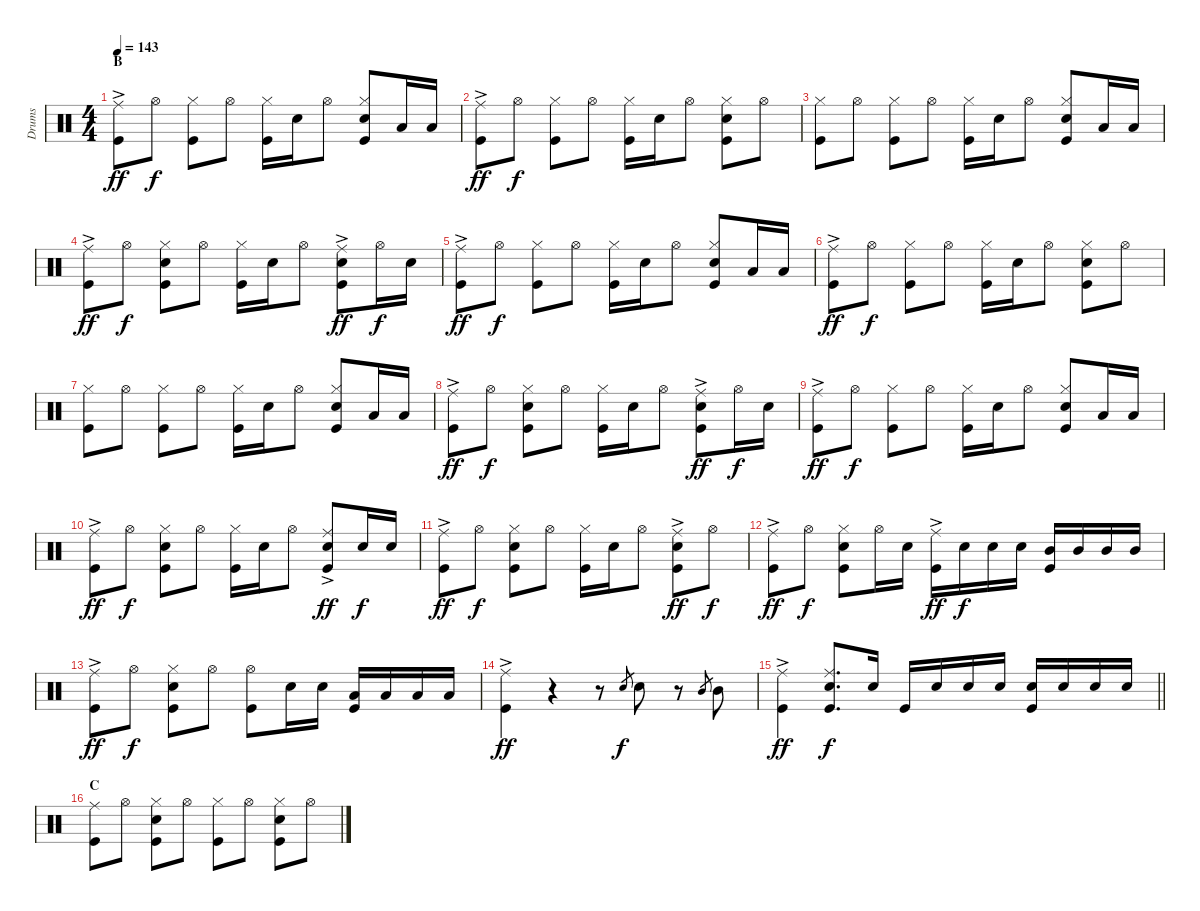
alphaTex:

\track ("Drums" "Drums") {instrument percussion}
\staff {score}
\articulation defaults
\ts (4 4)
\section ("" "B")
\tempo 143
\clef neutral
\ks c
("Kick (hit)" "Ride (middle)"{ac}).8{dy ff} "Hi-Hat (open)".8{dy f} ("Hi-Hat (closed)" "Kick (hit)").8 "Hi-Hat (open)".8 ("Hi-Hat (closed)" "Kick (hit)").16 "Snare (hit) 2".16 "Hi-Hat (open)".8 ("Hi-Hat (closed)" "Snare (hit) 2" "Kick (hit)").8 "Low Tom (hit)".16 "Low Tom (hit)".16 |
("Kick (hit)" "Ride (middle)"{ac}).8{dy ff} "Hi-Hat (open)".8{dy f} ("Hi-Hat (closed)" "Kick (hit)").8 "Hi-Hat (open)".8 ("Hi-Hat (closed)" "Kick (hit)").16 "Snare (hit) 2".16 "Hi-Hat (open)".8 ("Hi-Hat (closed)" "Snare (hit) 2" "Kick (hit)").8 "Hi-Hat (open)".8 |
("Kick (hit)" "Hi-Hat (closed)").8 "Hi-Hat (open)".8 ("Hi-Hat (closed)" "Kick (hit)").8 "Hi-Hat (open)".8 ("Hi-Hat (closed)" "Kick (hit)").16 "Snare (hit) 2".16 "Hi-Hat (open)".8 ("Hi-Hat (closed)" "Snare (hit) 2" "Kick (hit)").8 "Low Tom (hit)".16 "Low Tom (hit)".16 |
("Ride (middle)"{ac} "Kick (hit)").8{dy ff} "Hi-Hat (open)".8{dy f} ("Hi-Hat (closed)" "Kick (hit)" "Snare (hit) 2").8 "Hi-Hat (open)".8 ("Hi-Hat (closed)" "Kick (hit)").16 "Snare (hit) 2".16 "Hi-Hat (open)".8 ("Ride (middle)"{ac} "Kick (hit)" "Snare (hit) 2").8{dy ff} "Hi-Hat (open)".16{dy f} "Snare (hit) 2".16 |
("Kick (hit)" "Ride (middle)"{ac}).8{dy ff} "Hi-Hat (open)".8{dy f} ("Hi-Hat (closed)" "Kick (hit)").8 "Hi-Hat (open)".8 ("Hi-Hat (closed)" "Kick (hit)").16 "Snare (hit) 2".16 "Hi-Hat (open)".8 ("Hi-Hat (closed)" "Snare (hit) 2" "Kick (hit)").8 "Low Tom (hit)".16 "Low Tom (hit)".16 |
("Kick (hit)" "Ride (middle)"{ac}).8{dy ff} "Hi-Hat (open)".8{dy f} ("Hi-Hat (closed)" "Kick (hit)").8 "Hi-Hat (open)".8 ("Hi-Hat (closed)" "Kick (hit)").16 "Snare (hit) 2".16 "Hi-Hat (open)".8 ("Hi-Hat (closed)" "Snare (hit) 2" "Kick (hit)").8 "Hi-Hat (open)".8 |
("Kick (hit)" "Hi-Hat (closed)").8 "Hi-Hat (open)".8 ("Hi-Hat (closed)" "Kick (hit)").8 "Hi-Hat (open)".8 ("Hi-Hat (closed)" "Kick (hit)").16 "Snare (hit) 2".16 "Hi-Hat (open)".8 ("Hi-Hat (closed)" "Snare (hit) 2" "Kick (hit)").8 "Low Tom (hit)".16 "Low Tom (hit)".16 |
("Ride (middle)"{ac} "Kick (hit)").8{dy ff} "Hi-Hat (open)".8{dy f} ("Hi-Hat (closed)" "Kick (hit)" "Snare (hit) 2").8 "Hi-Hat (open)".8 ("Hi-Hat (closed)" "Kick (hit)").16 "Snare (hit) 2".16 "Hi-Hat (open)".8 ("Ride (middle)"{ac} "Kick (hit)" "Snare (hit) 2").8{dy ff} "Hi-Hat (open)".16{dy f} "Snare (hit) 2".16 |
("Kick (hit)" "Ride (middle)"{ac}).8{dy ff} "Hi-Hat (open)".8{dy f} ("Hi-Hat (closed)" "Kick (hit)").8 "Hi-Hat (open)".8 ("Hi-Hat (closed)" "Kick (hit)").16 "Snare (hit) 2".16 "Hi-Hat (open)".8 ("Hi-Hat (closed)" "Snare (hit) 2" "Kick (hit)").8 "Low Tom (hit)".16 "Low Tom (hit)".16 |
("Ride (middle)"{ac} "Kick (hit)").8{dy ff} "Hi-Hat (open)".8{dy f} ("Hi-Hat (closed)" "Kick (hit)" "Snare (hit) 2").8 "Hi-Hat (open)".8 ("Hi-Hat (closed)" "Kick (hit)").16 "Snare (hit) 2".16 "Hi-Hat (open)".8 ("Ride (middle)"{ac} "Kick (hit)" "Snare (hit) 2").8{dy ff} "Snare (hit) 2".16{dy f} "Snare (hit) 2".16 |
("Ride (middle)"{ac} "Kick (hit)").8{dy ff} "Hi-Hat (open)".8{dy f} ("Hi-Hat (closed)" "Kick (hit)" "Snare (hit) 2").8 "Hi-Hat (open)".8 ("Hi-Hat (closed)" "Kick (hit)").16 "Snare (hit) 2".16 "Hi-Hat (open)".8 ("Ride (middle)"{ac} "Kick (hit)" "Snare (hit) 2").8{dy ff} "Hi-Hat (open)".8{dy f} |
("Ride (middle)"{ac} "Kick (hit)").8{dy ff} "Hi-Hat (open)".8{dy f} ("Hi-Hat (closed)" "Snare (hit) 2" "Kick (hit)").8 "Hi-Hat (open)".16 "Snare (hit) 2".16 ("Ride (middle)"{ac} "Kick (hit)").16{dy ff} "Snare (hit) 2".16{dy f} "Snare (hit) 2".16 "Snare (hit) 2".16 ("Mid Tom (hit)" "Kick (hit)").16 "Mid Tom (hit)".16 "Mid Tom (hit)".16 "Mid Tom (hit)".16 |
("Ride (middle)"{ac} "Kick (hit)").8{dy ff} "Hi-Hat (open)".8{dy f} ("Hi-Hat (closed)" "Kick (hit)" "Snare (hit) 2").8 "Hi-Hat (open)".8 ("Hi-Hat (open)" "Kick (hit)").8 "Snare (hit) 2".16 "Snare (hit) 2".16 ("Low Tom (hit)" "Kick (hit)").16 "Low Tom (hit)".16 "Low Tom (hit)".16 "Low Tom (hit)".16 |
("Ride (middle)"{ac} "Kick (hit)").4{dy ff} r.4 r.8 "Snare (hit) 2".8{gr dy f} "Snare (hit) 2".8 r.8 "Mid Tom (hit)".8{gr} "Mid Tom (hit)".8 |
\barLineRight lightlight
("Ride (middle)"{ac} "Kick (hit)").4{dy ff} ("Ride (middle)" "Kick (hit)" "Snare (hit) 2").8{d dy f} "Snare (hit) 2".16 "Kick (hit)".16 "Snare (hit) 2".16 "Snare (hit) 2".16 "Snare (hit) 2".16 ("Kick (hit)" "Snare (hit) 2").16 "Snare (hit) 2".16 "Snare (hit) 2".16 "Snare (hit) 2".16 |
\section ("" "C")
("Ride (middle)" "Kick (hit)").8 "Hi-Hat (open)".8 ("Hi-Hat (closed)" "Snare (hit) 2" "Kick (hit)").8 "Hi-Hat (open)".8 ("Hi-Hat (closed)" "Kick (hit)").8 "Hi-Hat (open)".8 ("Hi-Hat (closed)" "Snare (hit) 2" "Kick (hit)").8 "Hi-Hat (open)".8
